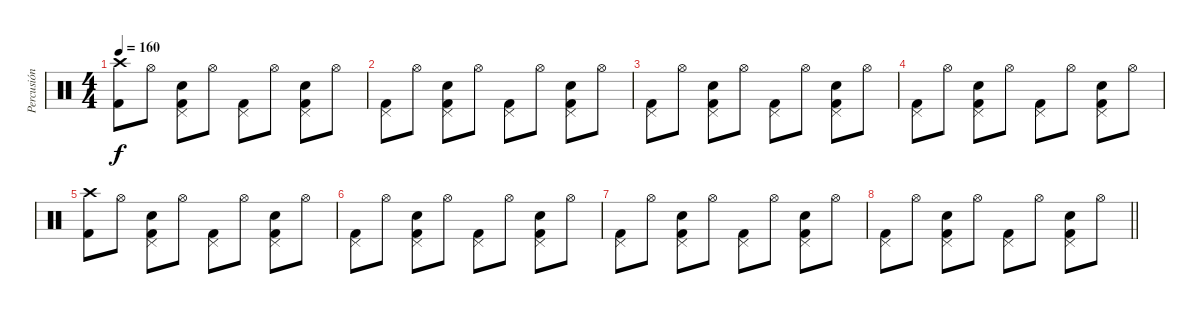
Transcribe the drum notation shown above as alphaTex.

\track ("Percusión" "Percusión") {instrument percussion}
\staff {score}
\articulation defaults
\ts (4 4)
\tempo 160
\clef neutral
\ks c
("Crash high (hit)" "Kick (hit) 2").8{dy f} "Hi-Hat (open)".8 ("Pedal Hi-Hat (hit)" "Snare (hit) 2" "Kick (hit) 2").8 "Hi-Hat (open)".8 ("Pedal Hi-Hat (hit)" "Kick (hit) 2").8 "Hi-Hat (open)".8 ("Pedal Hi-Hat (hit)" "Snare (hit) 2" "Kick (hit) 2").8 "Hi-Hat (open)".8 |
("Pedal Hi-Hat (hit)" "Kick (hit) 2").8 "Hi-Hat (open)".8 ("Pedal Hi-Hat (hit)" "Snare (hit) 2" "Kick (hit) 2").8 "Hi-Hat (open)".8 ("Pedal Hi-Hat (hit)" "Kick (hit) 2").8 "Hi-Hat (open)".8 ("Pedal Hi-Hat (hit)" "Snare (hit) 2" "Kick (hit) 2").8 "Hi-Hat (open)".8 |
("Pedal Hi-Hat (hit)" "Kick (hit) 2").8 "Hi-Hat (open)".8 ("Pedal Hi-Hat (hit)" "Snare (hit) 2" "Kick (hit) 2").8 "Hi-Hat (open)".8 ("Pedal Hi-Hat (hit)" "Kick (hit) 2").8 "Hi-Hat (open)".8 ("Pedal Hi-Hat (hit)" "Snare (hit) 2" "Kick (hit) 2").8 "Hi-Hat (open)".8 |
("Pedal Hi-Hat (hit)" "Kick (hit) 2").8 "Hi-Hat (open)".8 ("Pedal Hi-Hat (hit)" "Snare (hit) 2" "Kick (hit) 2").8 "Hi-Hat (open)".8 ("Pedal Hi-Hat (hit)" "Kick (hit) 2").8 "Hi-Hat (open)".8 ("Pedal Hi-Hat (hit)" "Snare (hit) 2" "Kick (hit) 2").8 "Hi-Hat (open)".8 |
("Crash high (hit)" "Kick (hit) 2").8 "Hi-Hat (open)".8 ("Pedal Hi-Hat (hit)" "Snare (hit) 2" "Kick (hit) 2").8 "Hi-Hat (open)".8 ("Pedal Hi-Hat (hit)" "Kick (hit) 2").8 "Hi-Hat (open)".8 ("Pedal Hi-Hat (hit)" "Snare (hit) 2" "Kick (hit) 2").8 "Hi-Hat (open)".8 |
("Pedal Hi-Hat (hit)" "Kick (hit) 2").8 "Hi-Hat (open)".8 ("Pedal Hi-Hat (hit)" "Snare (hit) 2" "Kick (hit) 2").8 "Hi-Hat (open)".8 ("Pedal Hi-Hat (hit)" "Kick (hit) 2").8 "Hi-Hat (open)".8 ("Pedal Hi-Hat (hit)" "Snare (hit) 2" "Kick (hit) 2").8 "Hi-Hat (open)".8 |
("Pedal Hi-Hat (hit)" "Kick (hit) 2").8 "Hi-Hat (open)".8 ("Pedal Hi-Hat (hit)" "Snare (hit) 2" "Kick (hit) 2").8 "Hi-Hat (open)".8 ("Pedal Hi-Hat (hit)" "Kick (hit) 2").8 "Hi-Hat (open)".8 ("Pedal Hi-Hat (hit)" "Snare (hit) 2" "Kick (hit) 2").8 "Hi-Hat (open)".8 |
\barLineRight lightlight
("Pedal Hi-Hat (hit)" "Kick (hit) 2").8 "Hi-Hat (open)".8 ("Pedal Hi-Hat (hit)" "Snare (hit) 2" "Kick (hit) 2").8 "Hi-Hat (open)".8 ("Pedal Hi-Hat (hit)" "Kick (hit) 2").8 "Hi-Hat (open)".8 ("Pedal Hi-Hat (hit)" "Snare (hit) 2" "Kick (hit) 2").8 "Hi-Hat (open)".8
